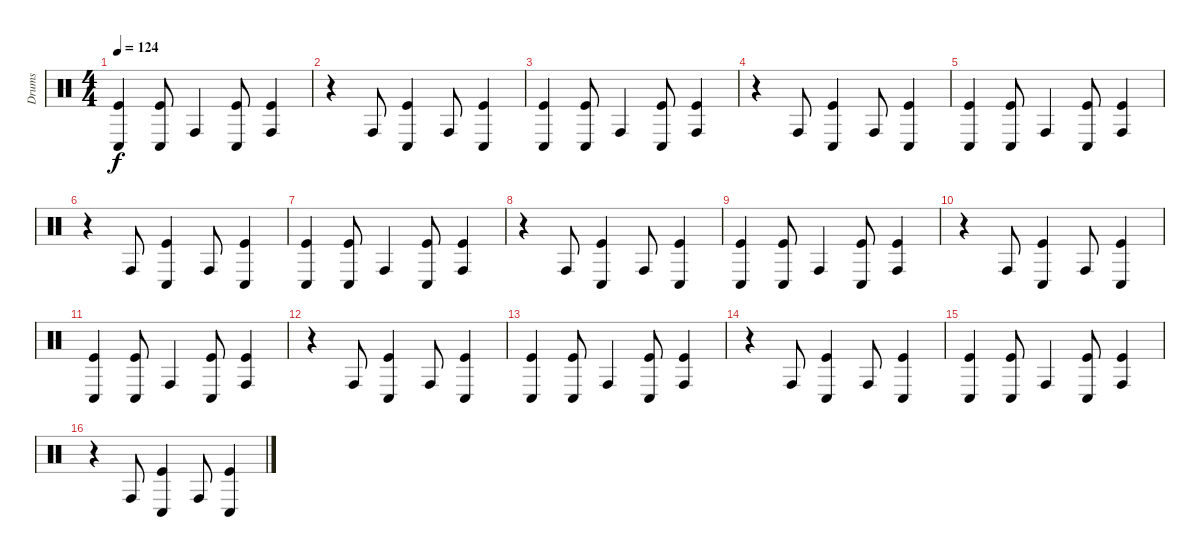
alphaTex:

\track ("Drums" "Drums") {instrument percussion}
\staff {score}
\articulation defaults
\ts (4 4)
\tempo 124
\clef neutral
\ks c
("Conga low (hit)" "Kick (hit)").4{dy f} ("Conga low (hit)" "Kick (hit)").8 "Conga high (hit)".4 ("Conga low (hit)" "Kick (hit)").8 ("Conga high (hit)" "Kick (hit)").4 |
r.4 "Conga high (hit)".8 ("Conga low (hit)" "Kick (hit)").4 "Conga high (hit)".8 ("Conga low (hit)" "Kick (hit)").4 |
("Conga low (hit)" "Kick (hit)").4 ("Conga low (hit)" "Kick (hit)").8 "Conga high (hit)".4 ("Conga low (hit)" "Kick (hit)").8 ("Conga high (hit)" "Kick (hit)").4 |
r.4 "Conga high (hit)".8 ("Conga low (hit)" "Kick (hit)").4 "Conga high (hit)".8 ("Conga low (hit)" "Kick (hit)").4 |
("Conga low (hit)" "Kick (hit)").4 ("Conga low (hit)" "Kick (hit)").8 "Conga high (hit)".4 ("Conga low (hit)" "Kick (hit)").8 ("Conga high (hit)" "Kick (hit)").4 |
r.4 "Conga high (hit)".8 ("Conga low (hit)" "Kick (hit)").4 "Conga high (hit)".8 ("Conga low (hit)" "Kick (hit)").4 |
("Conga low (hit)" "Kick (hit)").4 ("Conga low (hit)" "Kick (hit)").8 "Conga high (hit)".4 ("Conga low (hit)" "Kick (hit)").8 ("Conga high (hit)" "Kick (hit)").4 |
r.4 "Conga high (hit)".8 ("Conga low (hit)" "Kick (hit)").4 "Conga high (hit)".8 ("Conga low (hit)" "Kick (hit)").4 |
("Conga low (hit)" "Kick (hit)").4 ("Conga low (hit)" "Kick (hit)").8 "Conga high (hit)".4 ("Conga low (hit)" "Kick (hit)").8 ("Conga high (hit)" "Kick (hit)").4 |
r.4 "Conga high (hit)".8 ("Conga low (hit)" "Kick (hit)").4 "Conga high (hit)".8 ("Conga low (hit)" "Kick (hit)").4 |
("Conga low (hit)" "Kick (hit)").4 ("Conga low (hit)" "Kick (hit)").8 "Conga high (hit)".4 ("Conga low (hit)" "Kick (hit)").8 ("Conga high (hit)" "Kick (hit)").4 |
r.4 "Conga high (hit)".8 ("Conga low (hit)" "Kick (hit)").4 "Conga high (hit)".8 ("Conga low (hit)" "Kick (hit)").4 |
("Conga low (hit)" "Kick (hit)").4 ("Conga low (hit)" "Kick (hit)").8 "Conga high (hit)".4 ("Conga low (hit)" "Kick (hit)").8 ("Conga high (hit)" "Kick (hit)").4 |
r.4 "Conga high (hit)".8 ("Conga low (hit)" "Kick (hit)").4 "Conga high (hit)".8 ("Conga low (hit)" "Kick (hit)").4 |
("Conga low (hit)" "Kick (hit)").4 ("Conga low (hit)" "Kick (hit)").8 "Conga high (hit)".4 ("Conga low (hit)" "Kick (hit)").8 ("Conga high (hit)" "Kick (hit)").4 |
r.4 "Conga high (hit)".8 ("Conga low (hit)" "Kick (hit)").4 "Conga high (hit)".8 ("Conga low (hit)" "Kick (hit)").4
